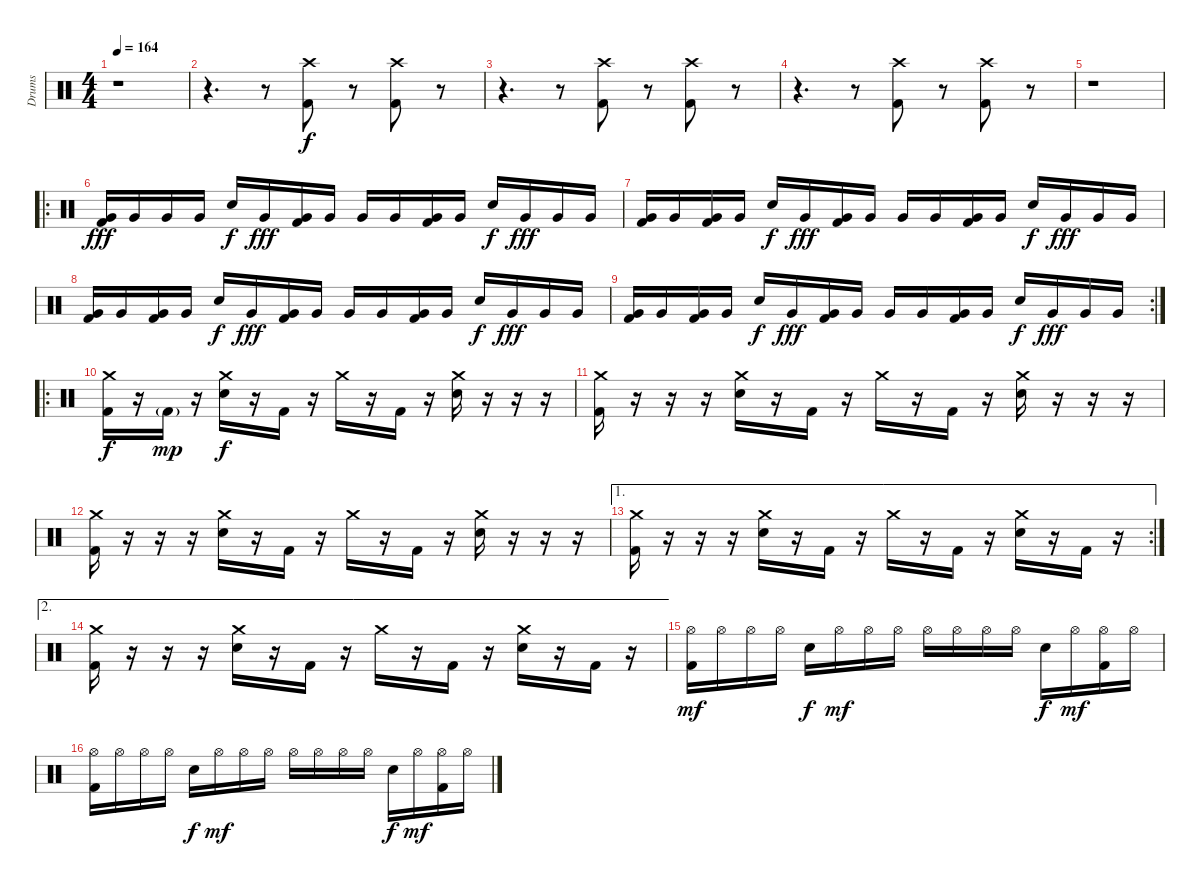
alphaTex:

\track ("Drums" "Drums") {instrument percussion}
\staff {score}
\articulation defaults
\ts (4 4)
\tempo 164
\clef neutral
\ks c
r.1{dy f} |
r.4{d} r.8 ("Crash high (hit)" "Kick (hit) 2").8 r.8 ("Crash high (hit)" "Kick (hit) 2").8 r.8 |
r.4{d} r.8 ("Crash high (hit)" "Kick (hit) 2").8 r.8 ("Crash high (hit)" "Kick (hit) 2").8 r.8 |
r.4{d} r.8 ("Crash high (hit)" "Kick (hit) 2").8 r.8 ("Crash high (hit)" "Kick (hit) 2").8 r.8 |
r.1 |
\ro
("Very Low Tom (hit)" "Kick (hit) 2").16{dy fff} "Very Low Tom (hit)".16 "Very Low Tom (hit)".16 "Very Low Tom (hit)".16 "Snare (hit) 2".16{dy f} "Very Low Tom (hit)".16{dy fff} ("Very Low Tom (hit)" "Kick (hit) 2").16 "Very Low Tom (hit)".16 "Very Low Tom (hit)".16 "Very Low Tom (hit)".16 ("Very Low Tom (hit)" "Kick (hit) 2").16 "Very Low Tom (hit)".16 "Snare (hit) 2".16{dy f} "Very Low Tom (hit)".16{dy fff} "Very Low Tom (hit)".16 "Very Low Tom (hit)".16 |
("Very Low Tom (hit)" "Kick (hit) 2").16 "Very Low Tom (hit)".16 ("Very Low Tom (hit)" "Kick (hit) 2").16 "Very Low Tom (hit)".16 "Snare (hit) 2".16{dy f} "Very Low Tom (hit)".16{dy fff} ("Very Low Tom (hit)" "Kick (hit) 2").16 "Very Low Tom (hit)".16 "Very Low Tom (hit)".16 "Very Low Tom (hit)".16 ("Very Low Tom (hit)" "Kick (hit) 2").16 "Very Low Tom (hit)".16 "Snare (hit) 2".16{dy f} "Very Low Tom (hit)".16{dy fff} "Very Low Tom (hit)".16 "Very Low Tom (hit)".16 |
("Very Low Tom (hit)" "Kick (hit) 2").16 "Very Low Tom (hit)".16 ("Very Low Tom (hit)" "Kick (hit) 2").16 "Very Low Tom (hit)".16 "Snare (hit) 2".16{dy f} "Very Low Tom (hit)".16{dy fff} ("Very Low Tom (hit)" "Kick (hit) 2").16 "Very Low Tom (hit)".16 "Very Low Tom (hit)".16 "Very Low Tom (hit)".16 ("Very Low Tom (hit)" "Kick (hit) 2").16 "Very Low Tom (hit)".16 "Snare (hit) 2".16{dy f} "Very Low Tom (hit)".16{dy fff} "Very Low Tom (hit)".16 "Very Low Tom (hit)".16 |
\rc 2
("Very Low Tom (hit)" "Kick (hit) 2").16 "Very Low Tom (hit)".16 ("Very Low Tom (hit)" "Kick (hit) 2").16 "Very Low Tom (hit)".16 "Snare (hit) 2".16{dy f} "Very Low Tom (hit)".16{dy fff} ("Very Low Tom (hit)" "Kick (hit) 2").16 "Very Low Tom (hit)".16 "Very Low Tom (hit)".16 "Very Low Tom (hit)".16 ("Very Low Tom (hit)" "Kick (hit) 2").16 "Very Low Tom (hit)".16 "Snare (hit) 2".16{dy f} "Very Low Tom (hit)".16{dy fff} "Very Low Tom (hit)".16 "Very Low Tom (hit)".16 |
\ro
("Crash medium (hit)" "Kick (hit) 2").16{dy f} r.16 "Kick (hit) 2"{g}.16{dy mp} r.16 ("Crash medium (hit)" "Snare (hit) 2").16{dy f} r.16 "Kick (hit) 2".16 r.16 "Crash medium (hit)".16 r.16 "Kick (hit) 2".16 r.16 ("Crash medium (hit)" "Snare (hit) 2").16 r.16 r.16 r.16 |
("Crash medium (hit)" "Kick (hit) 2").16 r.16 r.16 r.16 ("Crash medium (hit)" "Snare (hit) 2").16 r.16 "Kick (hit) 2".16 r.16 "Crash medium (hit)".16 r.16 "Kick (hit) 2".16 r.16 ("Crash medium (hit)" "Snare (hit) 2").16 r.16 r.16 r.16 |
("Crash medium (hit)" "Kick (hit) 2").16 r.16 r.16 r.16 ("Crash medium (hit)" "Snare (hit) 2").16 r.16 "Kick (hit) 2".16 r.16 "Crash medium (hit)".16 r.16 "Kick (hit) 2".16 r.16 ("Crash medium (hit)" "Snare (hit) 2").16 r.16 r.16 r.16 |
\ae 1
\rc 2
("Crash medium (hit)" "Kick (hit) 2").16 r.16 r.16 r.16 ("Crash medium (hit)" "Snare (hit) 2").16 r.16 "Kick (hit) 2".16 r.16 "Crash medium (hit)".16 r.16 "Kick (hit) 2".16 r.16 ("Crash medium (hit)" "Snare (hit) 2").16 r.16 "Kick (hit) 2".16 r.16 |
\ae 2
("Crash medium (hit)" "Kick (hit) 2").16 r.16 r.16 r.16 ("Crash medium (hit)" "Snare (hit) 2").16 r.16 "Kick (hit) 2".16 r.16 "Crash medium (hit)".16 r.16 "Kick (hit) 2".16 r.16 ("Crash medium (hit)" "Snare (hit) 2").16 r.16 "Kick (hit) 2".16 r.16 |
("Hi-Hat (open)" "Kick (hit) 2").16{dy mf} "Hi-Hat (open)".16 "Hi-Hat (open)".16 "Hi-Hat (open)".16 "Snare (hit) 2".16{dy f} "Hi-Hat (open)".16{dy mf} "Hi-Hat (open)".16 "Hi-Hat (open)".16 "Hi-Hat (open)".16 "Hi-Hat (open)".16 "Hi-Hat (open)".16 "Hi-Hat (open)".16 "Snare (hit) 2".16{dy f} "Hi-Hat (open)".16{dy mf} ("Hi-Hat (open)" "Kick (hit) 2").16 "Hi-Hat (open)".16 |
("Hi-Hat (open)" "Kick (hit) 2").16 "Hi-Hat (open)".16 "Hi-Hat (open)".16 "Hi-Hat (open)".16 "Snare (hit) 2".16{dy f} "Hi-Hat (open)".16{dy mf} "Hi-Hat (open)".16 "Hi-Hat (open)".16 "Hi-Hat (open)".16 "Hi-Hat (open)".16 "Hi-Hat (open)".16 "Hi-Hat (open)".16 "Snare (hit) 2".16{dy f} "Hi-Hat (open)".16{dy mf} ("Hi-Hat (open)" "Kick (hit) 2").16 "Hi-Hat (open)".16
